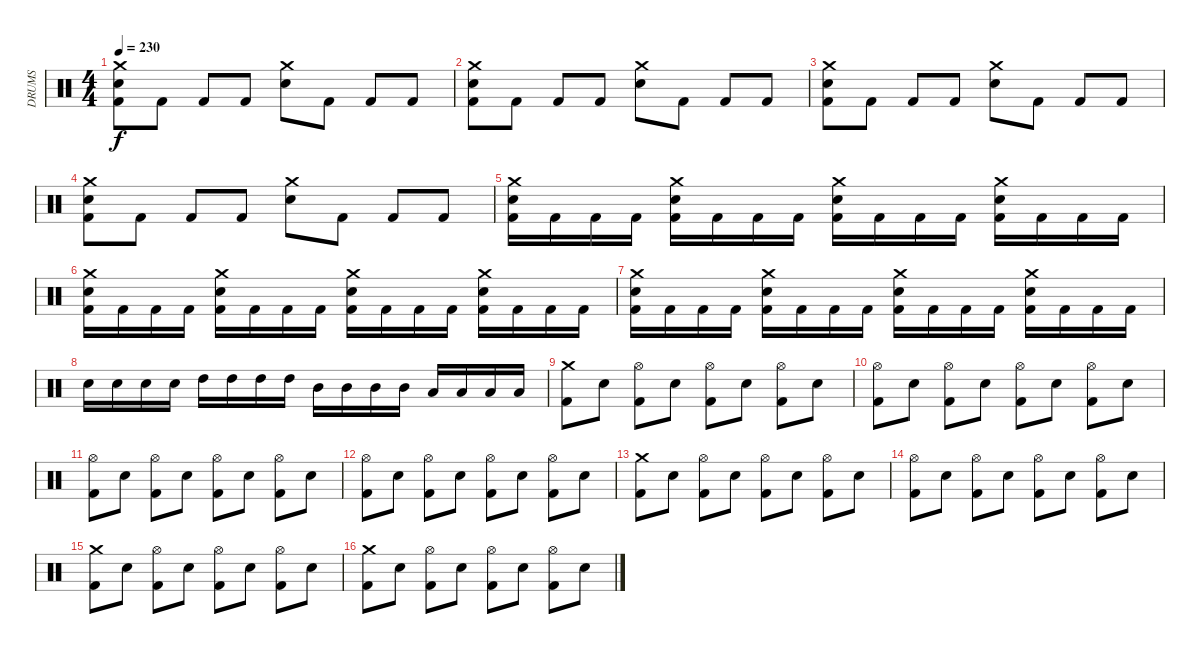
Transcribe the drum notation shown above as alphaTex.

\track ("DRUMS" "DRUMS") {instrument percussion}
\staff {score}
\articulation defaults
\ts (4 4)
\tempo 230
\clef neutral
\ks c
("Crash medium (hit)" "Snare (hit) 2" "Kick (hit) 2").8{dy f} "Kick (hit) 2".8 "Kick (hit) 2".8 "Kick (hit) 2".8 ("Crash medium (hit)" "Snare (hit) 2").8 "Kick (hit) 2".8 "Kick (hit) 2".8 "Kick (hit) 2".8 |
("Crash medium (hit)" "Snare (hit) 2" "Kick (hit) 2").8 "Kick (hit) 2".8 "Kick (hit) 2".8 "Kick (hit) 2".8 ("Crash medium (hit)" "Snare (hit) 2").8 "Kick (hit) 2".8 "Kick (hit) 2".8 "Kick (hit) 2".8 |
("Crash medium (hit)" "Snare (hit) 2" "Kick (hit) 2").8 "Kick (hit) 2".8 "Kick (hit) 2".8 "Kick (hit) 2".8 ("Crash medium (hit)" "Snare (hit) 2").8 "Kick (hit) 2".8 "Kick (hit) 2".8 "Kick (hit) 2".8 |
("Crash medium (hit)" "Snare (hit) 2" "Kick (hit) 2").8 "Kick (hit) 2".8 "Kick (hit) 2".8 "Kick (hit) 2".8 ("Crash medium (hit)" "Snare (hit) 2").8 "Kick (hit) 2".8 "Kick (hit) 2".8 "Kick (hit) 2".8 |
("Crash medium (hit)" "Snare (hit) 2" "Kick (hit) 2").16 "Kick (hit) 2".16 "Kick (hit) 2".16 "Kick (hit) 2".16 ("Crash medium (hit)" "Snare (hit) 2" "Kick (hit) 2").16 "Kick (hit) 2".16 "Kick (hit) 2".16 "Kick (hit) 2".16 ("Crash medium (hit)" "Snare (hit) 2" "Kick (hit) 2").16 "Kick (hit) 2".16 "Kick (hit) 2".16 "Kick (hit) 2".16 ("Crash medium (hit)" "Snare (hit) 2" "Kick (hit) 2").16 "Kick (hit) 2".16 "Kick (hit) 2".16 "Kick (hit) 2".16 |
("Crash medium (hit)" "Snare (hit) 2" "Kick (hit) 2").16 "Kick (hit) 2".16 "Kick (hit) 2".16 "Kick (hit) 2".16 ("Crash medium (hit)" "Snare (hit) 2" "Kick (hit) 2").16 "Kick (hit) 2".16 "Kick (hit) 2".16 "Kick (hit) 2".16 ("Crash medium (hit)" "Snare (hit) 2" "Kick (hit) 2").16 "Kick (hit) 2".16 "Kick (hit) 2".16 "Kick (hit) 2".16 ("Crash medium (hit)" "Snare (hit) 2" "Kick (hit) 2").16 "Kick (hit) 2".16 "Kick (hit) 2".16 "Kick (hit) 2".16 |
("Crash medium (hit)" "Snare (hit) 2" "Kick (hit) 2").16 "Kick (hit) 2".16 "Kick (hit) 2".16 "Kick (hit) 2".16 ("Crash medium (hit)" "Snare (hit) 2" "Kick (hit) 2").16 "Kick (hit) 2".16 "Kick (hit) 2".16 "Kick (hit) 2".16 ("Crash medium (hit)" "Snare (hit) 2" "Kick (hit) 2").16 "Kick (hit) 2".16 "Kick (hit) 2".16 "Kick (hit) 2".16 ("Crash medium (hit)" "Snare (hit) 2" "Kick (hit) 2").16 "Kick (hit) 2".16 "Kick (hit) 2".16 "Kick (hit) 2".16 |
"Snare (hit) 2".16 "Snare (hit) 2".16 "Snare (hit) 2".16 "Snare (hit) 2".16 "High Tom (hit)".16 "High Tom (hit)".16 "High Tom (hit)".16 "High Tom (hit)".16 "Mid Tom (hit)".16 "Mid Tom (hit)".16 "Mid Tom (hit)".16 "Mid Tom (hit)".16 "Low Tom (hit)".16 "Low Tom (hit)".16 "Low Tom (hit)".16 "Low Tom (hit)".16 |
("Crash medium (hit)" "Kick (hit) 2").8 "Snare (hit) 2".8 ("Hi-Hat (open)" "Kick (hit) 2").8 "Snare (hit) 2".8 ("Hi-Hat (open)" "Kick (hit) 2").8 "Snare (hit) 2".8 ("Hi-Hat (open)" "Kick (hit) 2").8 "Snare (hit) 2".8 |
("Hi-Hat (open)" "Kick (hit) 2").8 "Snare (hit) 2".8 ("Hi-Hat (open)" "Kick (hit) 2").8 "Snare (hit) 2".8 ("Hi-Hat (open)" "Kick (hit) 2").8 "Snare (hit) 2".8 ("Hi-Hat (open)" "Kick (hit) 2").8 "Snare (hit) 2".8 |
("Hi-Hat (open)" "Kick (hit) 2").8 "Snare (hit) 2".8 ("Hi-Hat (open)" "Kick (hit) 2").8 "Snare (hit) 2".8 ("Hi-Hat (open)" "Kick (hit) 2").8 "Snare (hit) 2".8 ("Hi-Hat (open)" "Kick (hit) 2").8 "Snare (hit) 2".8 |
("Hi-Hat (open)" "Kick (hit) 2").8 "Snare (hit) 2".8 ("Hi-Hat (open)" "Kick (hit) 2").8 "Snare (hit) 2".8 ("Hi-Hat (open)" "Kick (hit) 2").8 "Snare (hit) 2".8 ("Hi-Hat (open)" "Kick (hit) 2").8 "Snare (hit) 2".8 |
("Crash medium (hit)" "Kick (hit) 2").8 "Snare (hit) 2".8 ("Hi-Hat (open)" "Kick (hit) 2").8 "Snare (hit) 2".8 ("Hi-Hat (open)" "Kick (hit) 2").8 "Snare (hit) 2".8 ("Hi-Hat (open)" "Kick (hit) 2").8 "Snare (hit) 2".8 |
("Hi-Hat (open)" "Kick (hit) 2").8 "Snare (hit) 2".8 ("Hi-Hat (open)" "Kick (hit) 2").8 "Snare (hit) 2".8 ("Hi-Hat (open)" "Kick (hit) 2").8 "Snare (hit) 2".8 ("Hi-Hat (open)" "Kick (hit) 2").8 "Snare (hit) 2".8 |
("Crash medium (hit)" "Kick (hit) 2").8 "Snare (hit) 2".8 ("Hi-Hat (open)" "Kick (hit) 2").8 "Snare (hit) 2".8 ("Hi-Hat (open)" "Kick (hit) 2").8 "Snare (hit) 2".8 ("Hi-Hat (open)" "Kick (hit) 2").8 "Snare (hit) 2".8 |
("Crash medium (hit)" "Kick (hit) 2").8 "Snare (hit) 2".8 ("Hi-Hat (open)" "Kick (hit) 2").8 "Snare (hit) 2".8 ("Hi-Hat (open)" "Kick (hit) 2").8 "Snare (hit) 2".8 ("Hi-Hat (open)" "Kick (hit) 2").8 "Snare (hit) 2".8
